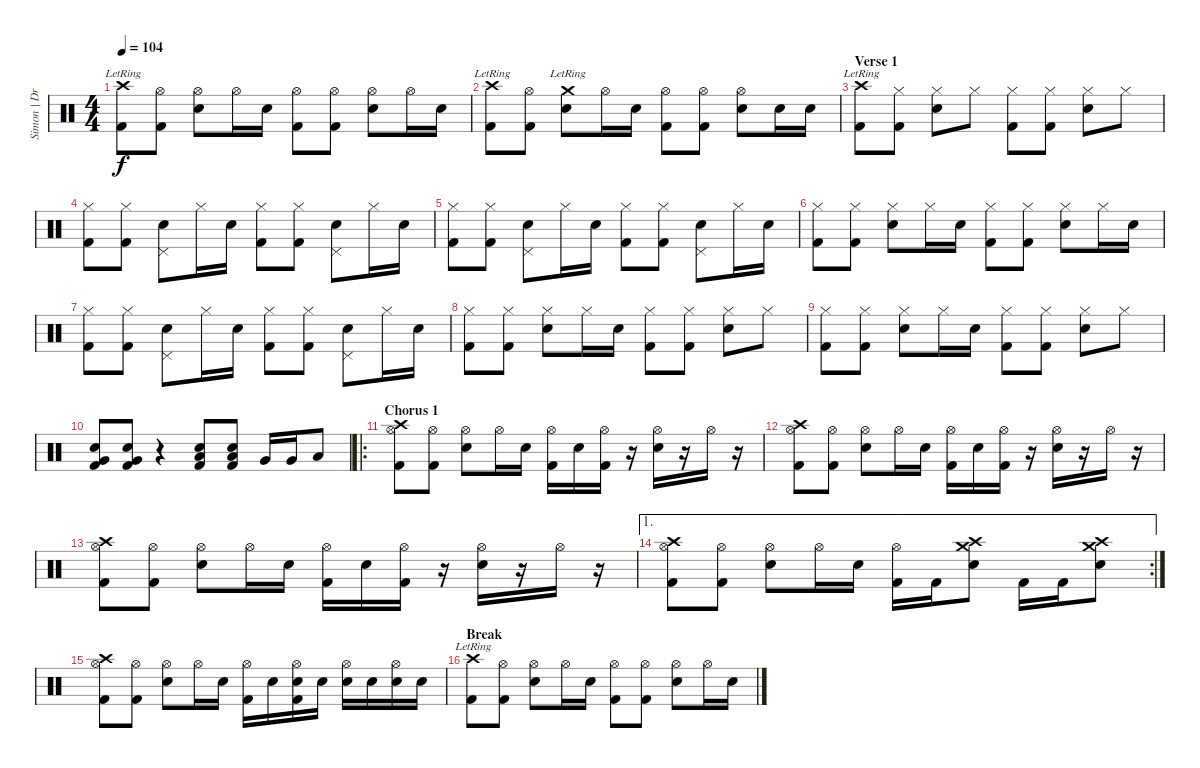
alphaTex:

\track ("Simon | Drums" "Simon | Dr") {instrument percussion}
\staff {score}
\articulation defaults
\ts (4 4)
\tempo 104
\clef neutral
\ks c
("Crash high (hit)"{lr} "Kick (hit) 2").8{dy f} ("Hi-Hat (open)" "Kick (hit) 2").8 ("Hi-Hat (open)" "Electric Snare (hit)").8 "Hi-Hat (open)".16 "Electric Snare (hit)".16 ("Hi-Hat (open)" "Kick (hit) 2").8 ("Hi-Hat (open)" "Kick (hit) 2").8 ("Hi-Hat (open)" "Electric Snare (hit)").8 "Hi-Hat (open)".16 "Electric Snare (hit)".16 |
("Crash high (hit)"{lr} "Kick (hit) 2").8 ("Hi-Hat (open)" "Kick (hit) 2").8 ("Crash medium (hit)"{lr} "Electric Snare (hit)").8 "Hi-Hat (open)".16 "Electric Snare (hit)".16 ("Hi-Hat (open)" "Kick (hit) 2").8 ("Hi-Hat (open)" "Kick (hit) 2").8 ("Hi-Hat (open)" "Electric Snare (hit)").8 "Electric Snare (hit)".16 "Electric Snare (hit)".16 |
\section ("" "Verse 1")
("Crash high (hit)"{lr} "Kick (hit) 2").8 ("Hi-Hat (closed)" "Kick (hit) 2").8 ("Hi-Hat (closed)" "Electric Snare (hit)").8 "Hi-Hat (closed)".8 ("Hi-Hat (closed)" "Kick (hit) 2").8 ("Hi-Hat (closed)" "Kick (hit) 2").8 ("Hi-Hat (closed)" "Electric Snare (hit)").8 "Hi-Hat (closed)".8 |
("Hi-Hat (closed)" "Kick (hit) 2").8 ("Hi-Hat (closed)" "Kick (hit) 2").8 ("Pedal Hi-Hat (hit)" "Electric Snare (hit)").8 "Hi-Hat (closed)".16 "Electric Snare (hit)".16 ("Hi-Hat (closed)" "Kick (hit) 2").8 ("Hi-Hat (closed)" "Kick (hit) 2").8 ("Pedal Hi-Hat (hit)" "Electric Snare (hit)").8 "Hi-Hat (closed)".16 "Electric Snare (hit)".16 |
("Hi-Hat (closed)" "Kick (hit) 2").8 ("Hi-Hat (closed)" "Kick (hit) 2").8 ("Pedal Hi-Hat (hit)" "Electric Snare (hit)").8 "Hi-Hat (closed)".16 "Electric Snare (hit)".16 ("Hi-Hat (closed)" "Kick (hit) 2").8 ("Hi-Hat (closed)" "Kick (hit) 2").8 ("Pedal Hi-Hat (hit)" "Electric Snare (hit)").8 "Hi-Hat (closed)".16 "Electric Snare (hit)".16 |
("Hi-Hat (closed)" "Kick (hit) 2").8 ("Hi-Hat (closed)" "Kick (hit) 2").8 ("Hi-Hat (closed)" "Electric Snare (hit)").8 "Hi-Hat (closed)".16 "Electric Snare (hit)".16 ("Hi-Hat (closed)" "Kick (hit) 2").8 ("Hi-Hat (closed)" "Kick (hit) 2").8 ("Hi-Hat (closed)" "Electric Snare (hit)").8 "Hi-Hat (closed)".16 "Electric Snare (hit)".16 |
("Hi-Hat (closed)" "Kick (hit) 2").8 ("Hi-Hat (closed)" "Kick (hit) 2").8 ("Pedal Hi-Hat (hit)" "Electric Snare (hit)").8 "Hi-Hat (closed)".16 "Electric Snare (hit)".16 ("Hi-Hat (closed)" "Kick (hit) 2").8 ("Hi-Hat (closed)" "Kick (hit) 2").8 ("Pedal Hi-Hat (hit)" "Electric Snare (hit)").8 "Hi-Hat (closed)".16 "Electric Snare (hit)".16 |
("Hi-Hat (closed)" "Kick (hit) 2").8 ("Hi-Hat (closed)" "Kick (hit) 2").8 ("Hi-Hat (closed)" "Electric Snare (hit)").8 "Hi-Hat (closed)".16 "Electric Snare (hit)".16 ("Hi-Hat (closed)" "Kick (hit) 2").8 ("Hi-Hat (closed)" "Kick (hit) 2").8 ("Hi-Hat (closed)" "Electric Snare (hit)").8 "Hi-Hat (closed)".8 |
("Hi-Hat (closed)" "Kick (hit) 2").8 ("Hi-Hat (closed)" "Kick (hit) 2").8 ("Hi-Hat (closed)" "Electric Snare (hit)").8 "Hi-Hat (closed)".16 "Electric Snare (hit)".16 ("Hi-Hat (closed)" "Kick (hit) 2").8 ("Hi-Hat (closed)" "Kick (hit) 2").8 ("Hi-Hat (closed)" "Electric Snare (hit)").8 "Hi-Hat (closed)".8 |
("Very Low Tom (hit)" "Electric Snare (hit)" "Kick (hit) 2").8 ("Very Low Tom (hit)" "Electric Snare (hit)" "Kick (hit) 2").8 r.4 ("Low Floor Tom (hit)" "Electric Snare (hit)" "Kick (hit) 2").8 ("Low Floor Tom (hit)" "Electric Snare (hit)" "Kick (hit) 2").8 "Very Low Tom (hit)".16 "Very Low Tom (hit)".16 "Low Floor Tom (hit)".8 |
\ro
\section ("" "Chorus 1")
("Crash high (hit)" "Hi-Hat (open)" "Kick (hit) 2").8 ("Hi-Hat (open)" "Kick (hit) 2").8 ("Hi-Hat (open)" "Electric Snare (hit)").8 "Hi-Hat (open)".16 "Electric Snare (hit)".16 ("Hi-Hat (open)" "Kick (hit) 2").16 "Electric Snare (hit)".16 ("Hi-Hat (open)" "Kick (hit) 2").16 r.16 ("Hi-Hat (open)" "Electric Snare (hit)").16 r.16 "Hi-Hat (open)".16 r.16 |
("Crash high (hit)" "Hi-Hat (open)" "Kick (hit) 2").8 ("Hi-Hat (open)" "Kick (hit) 2").8 ("Hi-Hat (open)" "Electric Snare (hit)").8 "Hi-Hat (open)".16 "Electric Snare (hit)".16 ("Hi-Hat (open)" "Kick (hit) 2").16 "Electric Snare (hit)".16 ("Hi-Hat (open)" "Kick (hit) 2").16 r.16 ("Hi-Hat (open)" "Electric Snare (hit)").16 r.16 "Hi-Hat (open)".16 r.16 |
("Crash high (hit)" "Hi-Hat (open)" "Kick (hit) 2").8 ("Hi-Hat (open)" "Kick (hit) 2").8 ("Hi-Hat (open)" "Electric Snare (hit)").8 "Hi-Hat (open)".16 "Electric Snare (hit)".16 ("Hi-Hat (open)" "Kick (hit) 2").16 "Electric Snare (hit)".16 ("Hi-Hat (open)" "Kick (hit) 2").16 r.16 ("Hi-Hat (open)" "Electric Snare (hit)").16 r.16 "Hi-Hat (open)".16 r.16 |
\ae 1
\rc 2
("Crash high (hit)" "Hi-Hat (open)" "Kick (hit) 2").8 ("Hi-Hat (open)" "Kick (hit) 2").8 ("Hi-Hat (open)" "Electric Snare (hit)").8 "Hi-Hat (open)".16 "Electric Snare (hit)".16 ("Hi-Hat (open)" "Kick (hit) 2").16 "Kick (hit) 2".16 ("Crash high (hit)" "Crash medium (hit)" "Electric Snare (hit)").8 "Kick (hit) 2".16 "Kick (hit) 2".16 ("Crash high (hit)" "Crash medium (hit)" "Electric Snare (hit)").8 |
("Crash high (hit)" "Hi-Hat (open)" "Kick (hit) 2").8 ("Hi-Hat (open)" "Kick (hit) 2").8 ("Hi-Hat (open)" "Electric Snare (hit)").8 "Hi-Hat (open)".16 "Electric Snare (hit)".16 ("Hi-Hat (open)" "Kick (hit) 2").16 "Electric Snare (hit)".16 ("Hi-Hat (open)" "Electric Snare (hit)" "Kick (hit) 2").16 "Electric Snare (hit)".16 ("Hi-Hat (open)" "Electric Snare (hit)").16 "Electric Snare (hit)".16 ("Hi-Hat (open)" "Electric Snare (hit)").16 "Electric Snare (hit)".16 |
\section ("" "Break")
("Crash high (hit)"{lr} "Kick (hit) 2").8 ("Hi-Hat (open)" "Kick (hit) 2").8 ("Hi-Hat (open)" "Electric Snare (hit)").8 "Hi-Hat (open)".16 "Electric Snare (hit)".16 ("Hi-Hat (open)" "Kick (hit) 2").8 ("Hi-Hat (open)" "Kick (hit) 2").8 ("Hi-Hat (open)" "Electric Snare (hit)").8 "Hi-Hat (open)".16 "Electric Snare (hit)".16
